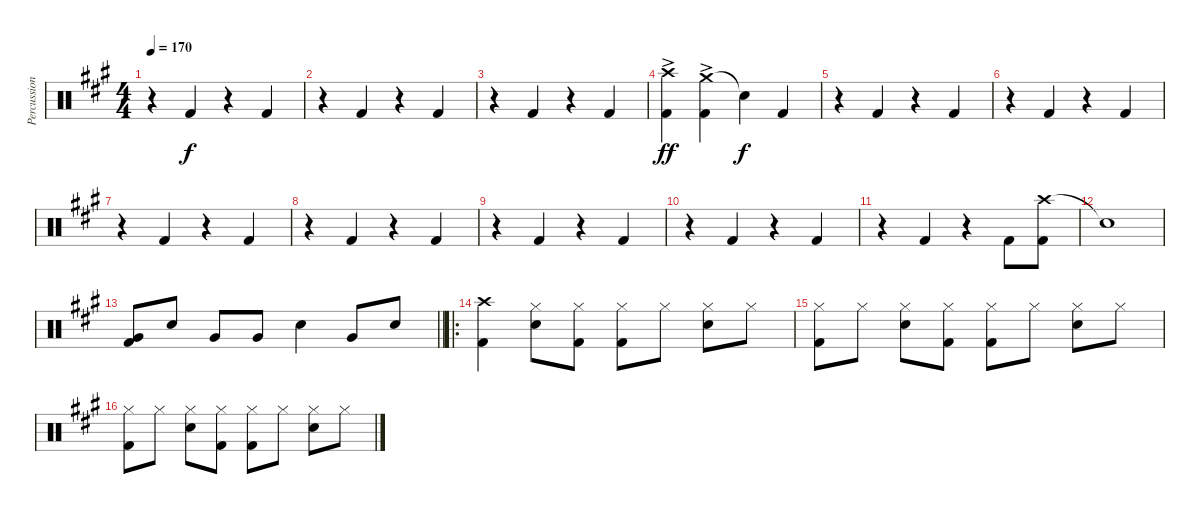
\track ("Percussion" "Percussion") {instrument percussion}
\staff {score}
\articulation defaults
\ts (4 4)
\tempo 170
\clef neutral
\ks a
r.4{dy f} "Kick (hit) 2".4 r.4 "Kick (hit) 2".4 |
r.4 "Kick (hit) 2".4 r.4 "Kick (hit) 2".4 |
r.4 "Kick (hit) 2".4 r.4 "Kick (hit) 2".4 |
("Crash high (hit)"{ac} "Kick (hit) 2").4{dy ff} ("Crash medium (hit)"{ac} "Kick (hit) 2").4 "Snare (hit)"{t}.4{dy f} "Kick (hit) 2".4 |
r.4 "Kick (hit) 2".4 r.4 "Kick (hit) 2".4 |
r.4 "Kick (hit) 2".4 r.4 "Kick (hit) 2".4 |
r.4 "Kick (hit) 2".4 r.4 "Kick (hit) 2".4 |
r.4 "Kick (hit) 2".4 r.4 "Kick (hit) 2".4 |
r.4 "Kick (hit) 2".4 r.4 "Kick (hit) 2".4 |
r.4 "Kick (hit) 2".4 r.4 "Kick (hit) 2".4 |
r.4 "Kick (hit) 2".4 r.4 "Kick (hit) 2".8 ("Crash high (hit)" "Kick (hit) 2").8 |
"Snare (hit)"{t}.1 |
\barLineRight lightlight
("Very Low Tom (hit)" "Kick (hit) 2").8 "Snare (hit) 2".8 "Very Low Tom (hit)".8 "Very Low Tom (hit)".8 "Snare (hit) 2".4 "Very Low Tom (hit)".8 "Snare (hit) 2".8 |
\ro
("Crash high (hit)" "Kick (hit) 2").4 ("Hi-Hat (closed)" "Snare (hit) 2").8 ("Hi-Hat (closed)" "Kick (hit) 2").8 ("Hi-Hat (closed)" "Kick (hit) 2").8 "Hi-Hat (closed)".8 ("Hi-Hat (closed)" "Snare (hit) 2").8 "Hi-Hat (closed)".8 |
("Hi-Hat (closed)" "Kick (hit) 2").8 "Hi-Hat (closed)".8 ("Hi-Hat (closed)" "Snare (hit) 2").8 ("Hi-Hat (closed)" "Kick (hit) 2").8 ("Hi-Hat (closed)" "Kick (hit) 2").8 "Hi-Hat (closed)".8 ("Hi-Hat (closed)" "Snare (hit) 2").8 "Hi-Hat (closed)".8 |
("Hi-Hat (closed)" "Kick (hit) 2").8 "Hi-Hat (closed)".8 ("Hi-Hat (closed)" "Snare (hit) 2").8 ("Hi-Hat (closed)" "Kick (hit) 2").8 ("Hi-Hat (closed)" "Kick (hit) 2").8 "Hi-Hat (closed)".8 ("Hi-Hat (closed)" "Snare (hit) 2").8 "Hi-Hat (closed)".8
